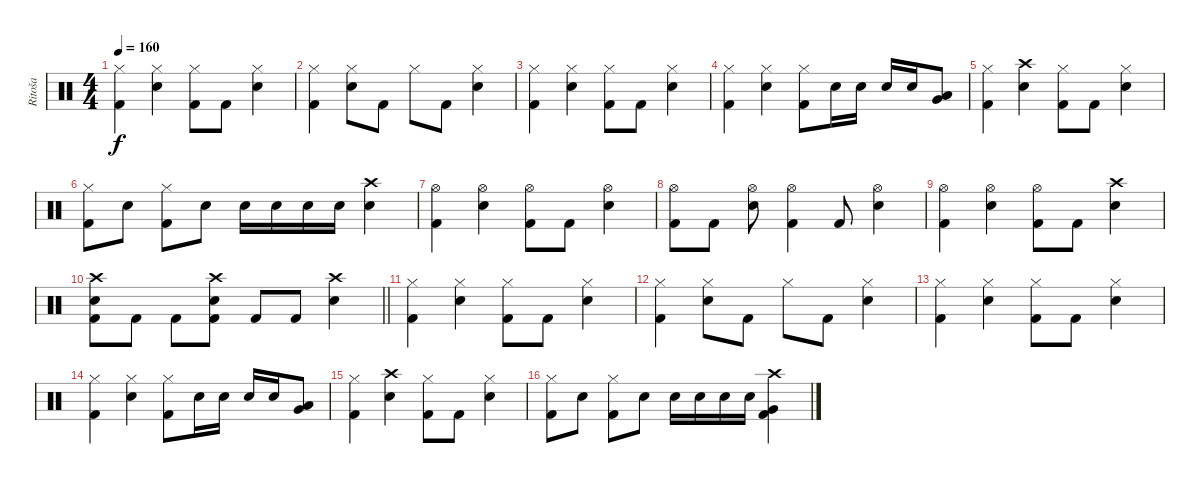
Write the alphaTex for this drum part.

\track ("Ritoša" "Ritoša") {instrument percussion}
\staff {score}
\articulation defaults
\ts (4 4)
\tempo 160
\clef neutral
\ks c
("Hi-Hat (closed)" "Kick (hit) 2").4{dy f} ("Hi-Hat (closed)" "Electric Snare (hit)").4 ("Hi-Hat (closed)" "Kick (hit) 2").8 "Kick (hit) 2".8 ("Hi-Hat (closed)" "Electric Snare (hit)").4 |
("Hi-Hat (closed)" "Kick (hit) 2").4 ("Hi-Hat (closed)" "Electric Snare (hit)").8 "Kick (hit) 2".8 "Hi-Hat (closed)".8 "Kick (hit) 2".8 ("Hi-Hat (closed)" "Electric Snare (hit)").4 |
("Hi-Hat (closed)" "Kick (hit) 2").4 ("Hi-Hat (closed)" "Electric Snare (hit)").4 ("Hi-Hat (closed)" "Kick (hit) 2").8 "Kick (hit) 2".8 ("Hi-Hat (closed)" "Electric Snare (hit)").4 |
("Hi-Hat (closed)" "Kick (hit) 2").4 ("Hi-Hat (closed)" "Electric Snare (hit)").4 ("Hi-Hat (closed)" "Kick (hit) 2").8 "Electric Snare (hit)".16 "Electric Snare (hit)".16 "Electric Snare (hit)".16 "Electric Snare (hit)".16 ("Very Low Tom (hit)" "Low Tom (hit)").8 |
("Hi-Hat (closed)" "Kick (hit) 2").4 ("Crash high (hit)" "Electric Snare (hit)").4 ("Hi-Hat (closed)" "Kick (hit) 2").8 "Kick (hit) 2".8 ("Hi-Hat (closed)" "Electric Snare (hit)").4 |
("Hi-Hat (closed)" "Kick (hit) 2").8 "Electric Snare (hit)".8 ("Hi-Hat (closed)" "Kick (hit) 2").8 "Electric Snare (hit)".8 "Electric Snare (hit)".16 "Electric Snare (hit)".16 "Electric Snare (hit)".16 "Electric Snare (hit)".16 ("Crash high (hit)" "Electric Snare (hit)").4 |
("Hi-Hat (open)" "Kick (hit) 2").4 ("Hi-Hat (open)" "Electric Snare (hit)").4 ("Hi-Hat (open)" "Kick (hit) 2").8 "Kick (hit) 2".8 ("Hi-Hat (open)" "Electric Snare (hit)").4 |
("Hi-Hat (open)" "Kick (hit) 2").8 "Kick (hit) 2".8 ("Hi-Hat (open)" "Electric Snare (hit)").8 ("Hi-Hat (open)" "Kick (hit) 2").4 "Kick (hit) 2".8 ("Hi-Hat (open)" "Electric Snare (hit)").4 |
("Hi-Hat (open)" "Kick (hit) 2").4 ("Hi-Hat (open)" "Electric Snare (hit)").4 ("Hi-Hat (open)" "Kick (hit) 2").8 "Kick (hit) 2".8 ("Crash high (hit)" "Electric Snare (hit)").4 |
\barLineRight lightlight
("Crash high (hit)" "Electric Snare (hit)" "Kick (hit) 2").8 "Kick (hit) 2".8 "Kick (hit) 2".8 ("Crash high (hit)" "Electric Snare (hit)" "Kick (hit) 2").8 "Kick (hit) 2".8 "Kick (hit) 2".8 ("Crash high (hit)" "Electric Snare (hit)").4 |
("Hi-Hat (closed)" "Kick (hit) 2").4 ("Hi-Hat (closed)" "Electric Snare (hit)").4 ("Hi-Hat (closed)" "Kick (hit) 2").8 "Kick (hit) 2".8 ("Hi-Hat (closed)" "Electric Snare (hit)").4 |
("Hi-Hat (closed)" "Kick (hit) 2").4 ("Hi-Hat (closed)" "Electric Snare (hit)").8 "Kick (hit) 2".8 "Hi-Hat (closed)".8 "Kick (hit) 2".8 ("Hi-Hat (closed)" "Electric Snare (hit)").4 |
("Hi-Hat (closed)" "Kick (hit) 2").4 ("Hi-Hat (closed)" "Electric Snare (hit)").4 ("Hi-Hat (closed)" "Kick (hit) 2").8 "Kick (hit) 2".8 ("Hi-Hat (closed)" "Electric Snare (hit)").4 |
("Hi-Hat (closed)" "Kick (hit) 2").4 ("Hi-Hat (closed)" "Electric Snare (hit)").4 ("Hi-Hat (closed)" "Kick (hit) 2").8 "Electric Snare (hit)".16 "Electric Snare (hit)".16 "Electric Snare (hit)".16 "Electric Snare (hit)".16 ("Very Low Tom (hit)" "Low Tom (hit)").8 |
("Hi-Hat (closed)" "Kick (hit) 2").4 ("Crash high (hit)" "Electric Snare (hit)").4 ("Hi-Hat (closed)" "Kick (hit) 2").8 "Kick (hit) 2".8 ("Hi-Hat (closed)" "Electric Snare (hit)").4 |
("Hi-Hat (closed)" "Kick (hit) 2").8 "Electric Snare (hit)".8 ("Hi-Hat (closed)" "Kick (hit) 2").8 "Electric Snare (hit)".8 "Electric Snare (hit)".16 "Electric Snare (hit)".16 "Electric Snare (hit)".16 "Electric Snare (hit)".16 ("Crash high (hit)" "Very Low Tom (hit)" "Kick (hit) 2").4
